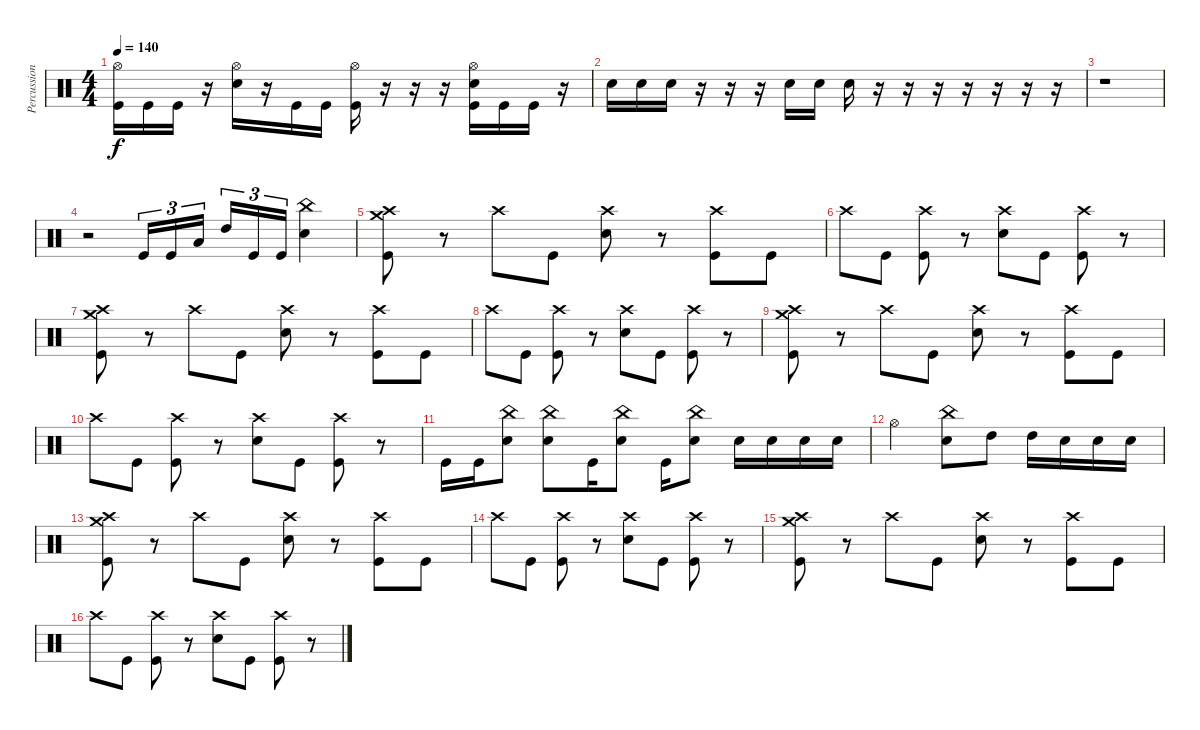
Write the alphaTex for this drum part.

\track ("Percussion" "Percussion") {instrument percussion}
\staff {score}
\articulation defaults
\ts (4 4)
\tempo 140
\clef neutral
\ks c
("Hi-Hat (open)" "Kick (hit)").16{dy f} "Kick (hit)".16 "Kick (hit)".16 r.16 ("Hi-Hat (open)" "Snare (hit) 2").16 r.16 "Kick (hit)".16 "Kick (hit)".16 ("Hi-Hat (open)" "Kick (hit)").16 r.16 r.16 r.16 ("Hi-Hat (open)" "Snare (hit) 2" "Kick (hit)").16 "Kick (hit)".16 "Kick (hit)".16 r.16 |
"Snare (hit) 2".16 "Snare (hit) 2".16 "Snare (hit) 2".16 r.16 r.16 r.16 "Snare (hit) 2".16 "Snare (hit) 2".16 "Snare (hit) 2".16 r.16 r.16 r.16 r.16 r.16 r.16 r.16 |
r.1 |
r.2 "Kick (hit)".16{tu (3 2)} "Kick (hit)".16{tu (3 2)} "Low Tom (hit)".16{tu (3 2) beam splitsecondary} "High Tom (hit)".16{tu (3 2)} "Kick (hit)".16{tu (3 2)} "Kick (hit)".16{tu (3 2)} ("China (hit)" "Snare (hit) 2").4 |
("Crash medium (hit)" "Crash high (hit)" "Kick (hit)").8 r.8 "Crash high (hit)".8 "Kick (hit)".8 ("Crash high (hit)" "Snare (hit) 2").8 r.8 ("Crash high (hit)" "Kick (hit)").8 "Kick (hit)".8 |
"Crash high (hit)".8 "Kick (hit)".8 ("Crash high (hit)" "Kick (hit)").8 r.8 ("Crash high (hit)" "Snare (hit) 2").8 "Kick (hit)".8 ("Crash high (hit)" "Kick (hit)").8 r.8 |
("Crash medium (hit)" "Crash high (hit)" "Kick (hit)").8 r.8 "Crash high (hit)".8 "Kick (hit)".8 ("Crash high (hit)" "Snare (hit) 2").8 r.8 ("Crash high (hit)" "Kick (hit)").8 "Kick (hit)".8 |
"Crash high (hit)".8 "Kick (hit)".8 ("Crash high (hit)" "Kick (hit)").8 r.8 ("Crash high (hit)" "Snare (hit) 2").8 "Kick (hit)".8 ("Crash high (hit)" "Kick (hit)").8 r.8 |
("Crash medium (hit)" "Crash high (hit)" "Kick (hit)").8 r.8 "Crash high (hit)".8 "Kick (hit)".8 ("Crash high (hit)" "Snare (hit) 2").8 r.8 ("Crash high (hit)" "Kick (hit)").8 "Kick (hit)".8 |
"Crash high (hit)".8 "Kick (hit)".8 ("Crash high (hit)" "Kick (hit)").8 r.8 ("Crash high (hit)" "Snare (hit) 2").8 "Kick (hit)".8 ("Crash high (hit)" "Kick (hit)").8 r.8 |
"Kick (hit)".16 "Kick (hit)".16 ("China (hit)" "Snare (hit) 2").8 ("China (hit)" "Snare (hit) 2").8 "Kick (hit)".16 ("China (hit)" "Snare (hit) 2").8 "Kick (hit)".16 ("China (hit)" "Snare (hit) 2").8 "Snare (hit) 2".16 "Snare (hit) 2".16 "Snare (hit) 2".16 "Snare (hit) 2".16 |
"Hi-Hat (open)".2 ("China (hit)" "Snare (hit) 2").8 "High Tom (hit)".8 "High Tom (hit)".16 "Snare (hit) 2".16 "Snare (hit) 2".16 "Snare (hit) 2".16 |
("Crash medium (hit)" "Crash high (hit)" "Kick (hit)").8 r.8 "Crash high (hit)".8 "Kick (hit)".8 ("Crash high (hit)" "Snare (hit) 2").8 r.8 ("Crash high (hit)" "Kick (hit)").8 "Kick (hit)".8 |
"Crash high (hit)".8 "Kick (hit)".8 ("Crash high (hit)" "Kick (hit)").8 r.8 ("Crash high (hit)" "Snare (hit) 2").8 "Kick (hit)".8 ("Crash high (hit)" "Kick (hit)").8 r.8 |
("Crash medium (hit)" "Crash high (hit)" "Kick (hit)").8 r.8 "Crash high (hit)".8 "Kick (hit)".8 ("Crash high (hit)" "Snare (hit) 2").8 r.8 ("Crash high (hit)" "Kick (hit)").8 "Kick (hit)".8 |
"Crash high (hit)".8 "Kick (hit)".8 ("Crash high (hit)" "Kick (hit)").8 r.8 ("Crash high (hit)" "Snare (hit) 2").8 "Kick (hit)".8 ("Crash high (hit)" "Kick (hit)").8 r.8
